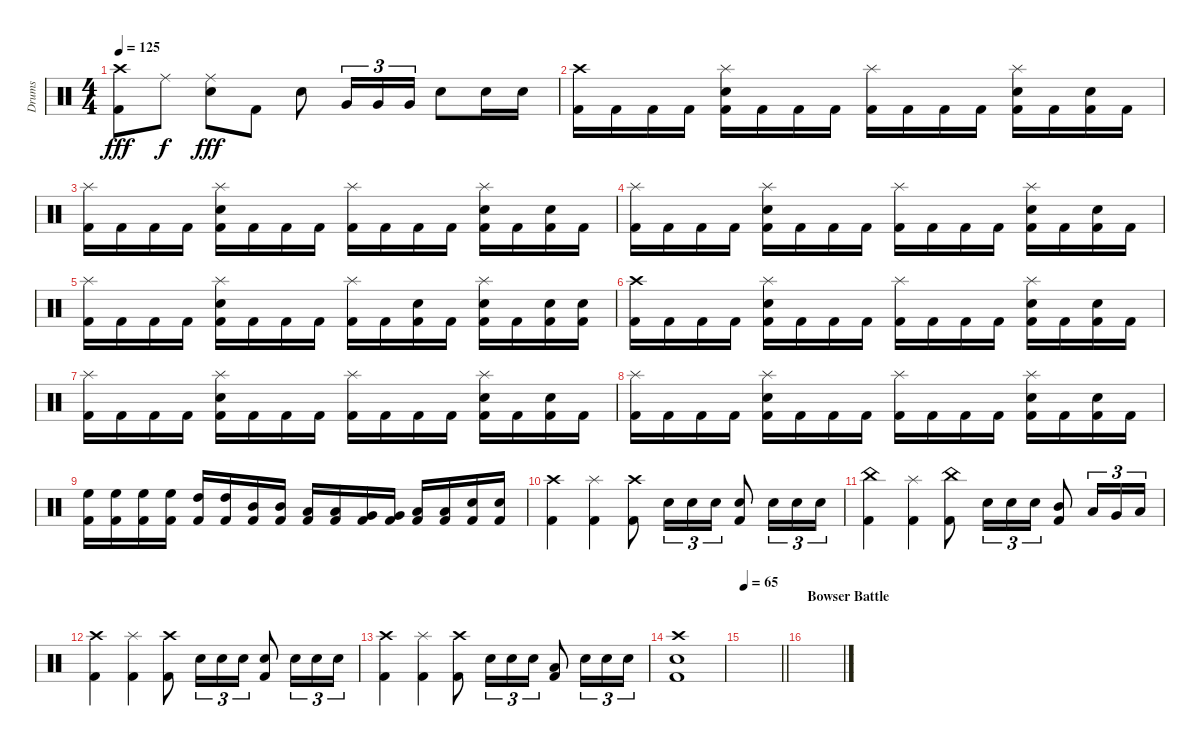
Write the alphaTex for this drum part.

\track ("Drums" "Drums") {instrument percussion}
\staff {score}
\articulation defaults
\ts (4 4)
\tempo 125
\clef neutral
\ks c
("Kick (hit) 2" "Crash high (hit)").8{dy fff} "Ride (middle)".8{dy f} ("Ride (middle)" "Snare (hit) 2").8{dy fff} "Kick (hit) 2".8 "Snare (hit) 2".8 "Very Low Tom (hit)".16{tu (3 2)} "Very Low Tom (hit)".16{tu (3 2)} "Very Low Tom (hit)".16{tu (3 2)} "Snare (hit) 2".8 "Snare (hit) 2".16 "Snare (hit) 2".16 |
("Kick (hit) 2" "Crash high (hit)").16 "Kick (hit) 2".16 "Kick (hit) 2".16 "Kick (hit) 2".16 ("Kick (hit) 2" "Splash (hit)" "Snare (hit) 2").16 "Kick (hit) 2".16 "Kick (hit) 2".16 "Kick (hit) 2".16 ("Kick (hit) 2" "Splash (hit)").16 "Kick (hit) 2".16 "Kick (hit) 2".16 "Kick (hit) 2".16 ("Kick (hit) 2" "Splash (hit)" "Snare (hit) 2").16 "Kick (hit) 2".16 ("Kick (hit) 2" "Snare (hit) 2").16 "Kick (hit) 2".16 |
("Kick (hit) 2" "Splash (hit)").16 "Kick (hit) 2".16 "Kick (hit) 2".16 "Kick (hit) 2".16 ("Kick (hit) 2" "Splash (hit)" "Snare (hit) 2").16 "Kick (hit) 2".16 "Kick (hit) 2".16 "Kick (hit) 2".16 ("Kick (hit) 2" "Splash (hit)").16 "Kick (hit) 2".16 "Kick (hit) 2".16 "Kick (hit) 2".16 ("Kick (hit) 2" "Splash (hit)" "Snare (hit) 2").16 "Kick (hit) 2".16 ("Kick (hit) 2" "Snare (hit) 2").16 "Kick (hit) 2".16 |
("Kick (hit) 2" "Splash (hit)").16 "Kick (hit) 2".16 "Kick (hit) 2".16 "Kick (hit) 2".16 ("Kick (hit) 2" "Splash (hit)" "Snare (hit) 2").16 "Kick (hit) 2".16 "Kick (hit) 2".16 "Kick (hit) 2".16 ("Kick (hit) 2" "Splash (hit)").16 "Kick (hit) 2".16 "Kick (hit) 2".16 "Kick (hit) 2".16 ("Kick (hit) 2" "Splash (hit)" "Snare (hit) 2").16 "Kick (hit) 2".16 ("Kick (hit) 2" "Snare (hit) 2").16 "Kick (hit) 2".16 |
("Kick (hit) 2" "Splash (hit)").16 "Kick (hit) 2".16 "Kick (hit) 2".16 "Kick (hit) 2".16 ("Kick (hit) 2" "Splash (hit)" "Snare (hit) 2").16 "Kick (hit) 2".16 "Kick (hit) 2".16 "Kick (hit) 2".16 ("Kick (hit) 2" "Splash (hit)").16 "Kick (hit) 2".16 ("Kick (hit) 2" "Snare (hit) 2").16 "Kick (hit) 2".16 ("Kick (hit) 2" "Splash (hit)" "Snare (hit) 2").16 "Kick (hit) 2".16 ("Kick (hit) 2" "Snare (hit) 2").16 ("Kick (hit) 2" "Snare (hit) 2").16 |
("Kick (hit) 2" "Crash high (hit)").16 "Kick (hit) 2".16 "Kick (hit) 2".16 "Kick (hit) 2".16 ("Kick (hit) 2" "Splash (hit)" "Snare (hit) 2").16 "Kick (hit) 2".16 "Kick (hit) 2".16 "Kick (hit) 2".16 ("Kick (hit) 2" "Splash (hit)").16 "Kick (hit) 2".16 "Kick (hit) 2".16 "Kick (hit) 2".16 ("Kick (hit) 2" "Splash (hit)" "Snare (hit) 2").16 "Kick (hit) 2".16 ("Kick (hit) 2" "Snare (hit) 2").16 "Kick (hit) 2".16 |
("Kick (hit) 2" "Splash (hit)").16 "Kick (hit) 2".16 "Kick (hit) 2".16 "Kick (hit) 2".16 ("Kick (hit) 2" "Splash (hit)" "Snare (hit) 2").16 "Kick (hit) 2".16 "Kick (hit) 2".16 "Kick (hit) 2".16 ("Kick (hit) 2" "Splash (hit)").16 "Kick (hit) 2".16 "Kick (hit) 2".16 "Kick (hit) 2".16 ("Kick (hit) 2" "Splash (hit)" "Snare (hit) 2").16 "Kick (hit) 2".16 ("Kick (hit) 2" "Snare (hit) 2").16 "Kick (hit) 2".16 |
("Kick (hit) 2" "Splash (hit)").16 "Kick (hit) 2".16 "Kick (hit) 2".16 "Kick (hit) 2".16 ("Kick (hit) 2" "Splash (hit)" "Snare (hit) 2").16 "Kick (hit) 2".16 "Kick (hit) 2".16 "Kick (hit) 2".16 ("Kick (hit) 2" "Splash (hit)").16 "Kick (hit) 2".16 "Kick (hit) 2".16 "Kick (hit) 2".16 ("Kick (hit) 2" "Splash (hit)" "Snare (hit) 2").16 "Kick (hit) 2".16 ("Kick (hit) 2" "Snare (hit) 2").16 "Kick (hit) 2".16 |
("Kick (hit) 2" "High Floor Tom (hit)").16 ("Kick (hit) 2" "High Floor Tom (hit)").16 ("Kick (hit) 2" "High Floor Tom (hit)").16 ("Kick (hit) 2" "High Floor Tom (hit)").16 ("Kick (hit) 2" "High Tom (hit)").16 ("Kick (hit) 2" "High Tom (hit)").16 ("Kick (hit) 2" "Mid Tom (hit)").16 ("Kick (hit) 2" "Mid Tom (hit)").16 ("Kick (hit) 2" "Low Tom (hit)").16 ("Kick (hit) 2" "Low Tom (hit)").16 ("Kick (hit) 2" "Very Low Tom (hit)").16 ("Kick (hit) 2" "Very Low Tom (hit)").16 ("Kick (hit) 2" "Low Floor Tom (hit)").16 ("Kick (hit) 2" "Low Floor Tom (hit)").16 ("Kick (hit) 2" "Snare (hit) 2").16 ("Kick (hit) 2" "Snare (hit) 2").16 |
("Kick (hit) 2" "Crash high (hit)").4 ("Kick (hit) 2" "Splash (hit)").4 ("Kick (hit) 2" "Crash high (hit)").8 "Snare (hit) 2".16{tu (3 2)} "Snare (hit) 2".16{tu (3 2)} "Snare (hit) 2".16{tu (3 2)} ("Kick (hit) 2" "Snare (hit) 2").8 "Snare (hit) 2".16{tu (3 2)} "Snare (hit) 2".16{tu (3 2)} "Snare (hit) 2".16{tu (3 2)} |
("Kick (hit) 2" "China (hit)").4 ("Kick (hit) 2" "Splash (hit)").4 ("Kick (hit) 2" "China (hit)").8 "Snare (hit) 2".16{tu (3 2)} "Snare (hit) 2".16{tu (3 2)} "Snare (hit) 2".16{tu (3 2)} ("Kick (hit) 2" "Mid Tom (hit)").8 "Low Tom (hit)".16{tu (3 2)} "Very Low Tom (hit)".16{tu (3 2)} "Low Floor Tom (hit)".16{tu (3 2)} |
("Kick (hit) 2" "Crash high (hit)").4 ("Kick (hit) 2" "Splash (hit)").4 ("Kick (hit) 2" "Crash high (hit)").8 "Snare (hit) 2".16{tu (3 2)} "Snare (hit) 2".16{tu (3 2)} "Snare (hit) 2".16{tu (3 2)} ("Kick (hit) 2" "Snare (hit) 2").8 "Snare (hit) 2".16{tu (3 2)} "Snare (hit) 2".16{tu (3 2)} "Snare (hit) 2".16{tu (3 2)} |
("Kick (hit) 2" "Crash high (hit)").4 ("Kick (hit) 2" "Splash (hit)").4 ("Kick (hit) 2" "Crash high (hit)").8 "Snare (hit) 2".16{tu (3 2)} "Snare (hit) 2".16{tu (3 2)} "Snare (hit) 2".16{tu (3 2)} ("Kick (hit) 2" "Low Floor Tom (hit)").8 "Snare (hit) 2".16{tu (3 2)} "Snare (hit) 2".16{tu (3 2)} "Snare (hit) 2".16{tu (3 2)} |
("Kick (hit) 2" "Crash high (hit)" "Snare (hit) 2").1 |
\tempo 65
\barLineRight lightlight
|
\section ("" "Bowser Battle")
